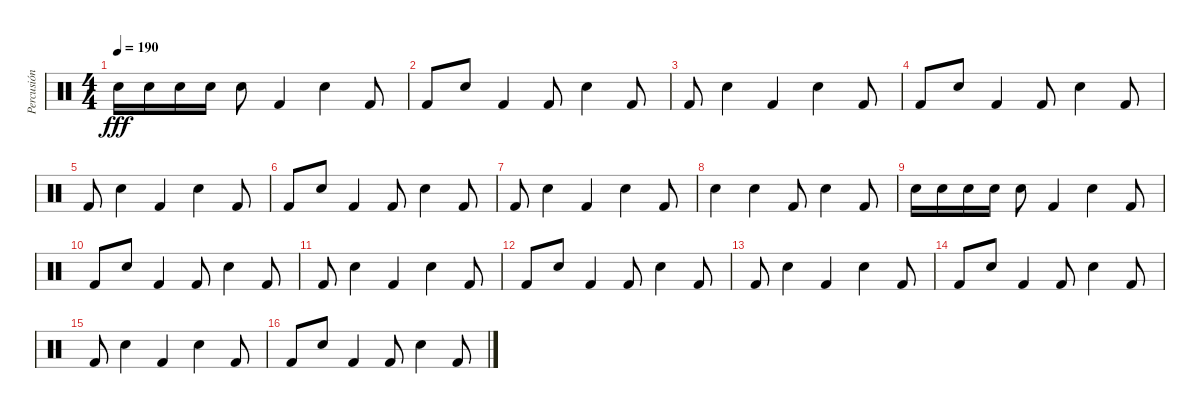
\track ("Percusión" "Percusión") {instrument percussion}
\staff {score}
\articulation defaults
\ts (4 4)
\tempo 190
\clef neutral
\ks c "Snare (hit) 2".16{dy fff} "Snare (hit) 2".16 "Snare (hit) 2".16 "Snare (hit) 2".16 "Snare (hit) 2".8 "Kick (hit) 2".4 "Snare (hit) 2".4 "Kick (hit) 2".8
|
"Kick (hit) 2".8 "Snare (hit) 2".8 "Kick (hit) 2".4 "Kick (hit) 2".8 "Snare (hit) 2".4 "Kick (hit) 2".8 |
"Kick (hit) 2".8 "Snare (hit) 2".4 "Kick (hit) 2".4 "Snare (hit) 2".4 "Kick (hit) 2".8 |
"Kick (hit) 2".8 "Snare (hit) 2".8 "Kick (hit) 2".4 "Kick (hit) 2".8 "Snare (hit) 2".4 "Kick (hit) 2".8 |
"Kick (hit) 2".8 "Snare (hit) 2".4 "Kick (hit) 2".4 "Snare (hit) 2".4 "Kick (hit) 2".8 |
"Kick (hit) 2".8 "Snare (hit) 2".8 "Kick (hit) 2".4 "Kick (hit) 2".8 "Snare (hit) 2".4 "Kick (hit) 2".8 |
"Kick (hit) 2".8 "Snare (hit) 2".4 "Kick (hit) 2".4 "Snare (hit) 2".4 "Kick (hit) 2".8 |
"Snare (hit) 2".4 "Snare (hit) 2".4 "Kick (hit) 2".8 "Snare (hit) 2".4 "Kick (hit) 2".8 |
"Snare (hit) 2".16 "Snare (hit) 2".16 "Snare (hit) 2".16 "Snare (hit) 2".16 "Snare (hit) 2".8 "Kick (hit) 2".4 "Snare (hit) 2".4 "Kick (hit) 2".8 |
"Kick (hit) 2".8 "Snare (hit) 2".8 "Kick (hit) 2".4 "Kick (hit) 2".8 "Snare (hit) 2".4 "Kick (hit) 2".8 |
"Kick (hit) 2".8 "Snare (hit) 2".4 "Kick (hit) 2".4 "Snare (hit) 2".4 "Kick (hit) 2".8 |
"Kick (hit) 2".8 "Snare (hit) 2".8 "Kick (hit) 2".4 "Kick (hit) 2".8 "Snare (hit) 2".4 "Kick (hit) 2".8 |
"Kick (hit) 2".8 "Snare (hit) 2".4 "Kick (hit) 2".4 "Snare (hit) 2".4 "Kick (hit) 2".8 |
"Kick (hit) 2".8 "Snare (hit) 2".8 "Kick (hit) 2".4 "Kick (hit) 2".8 "Snare (hit) 2".4 "Kick (hit) 2".8 |
"Kick (hit) 2".8 "Snare (hit) 2".4 "Kick (hit) 2".4 "Snare (hit) 2".4 "Kick (hit) 2".8 |
"Kick (hit) 2".8 "Snare (hit) 2".8 "Kick (hit) 2".4 "Kick (hit) 2".8 "Snare (hit) 2".4 "Kick (hit) 2".8
